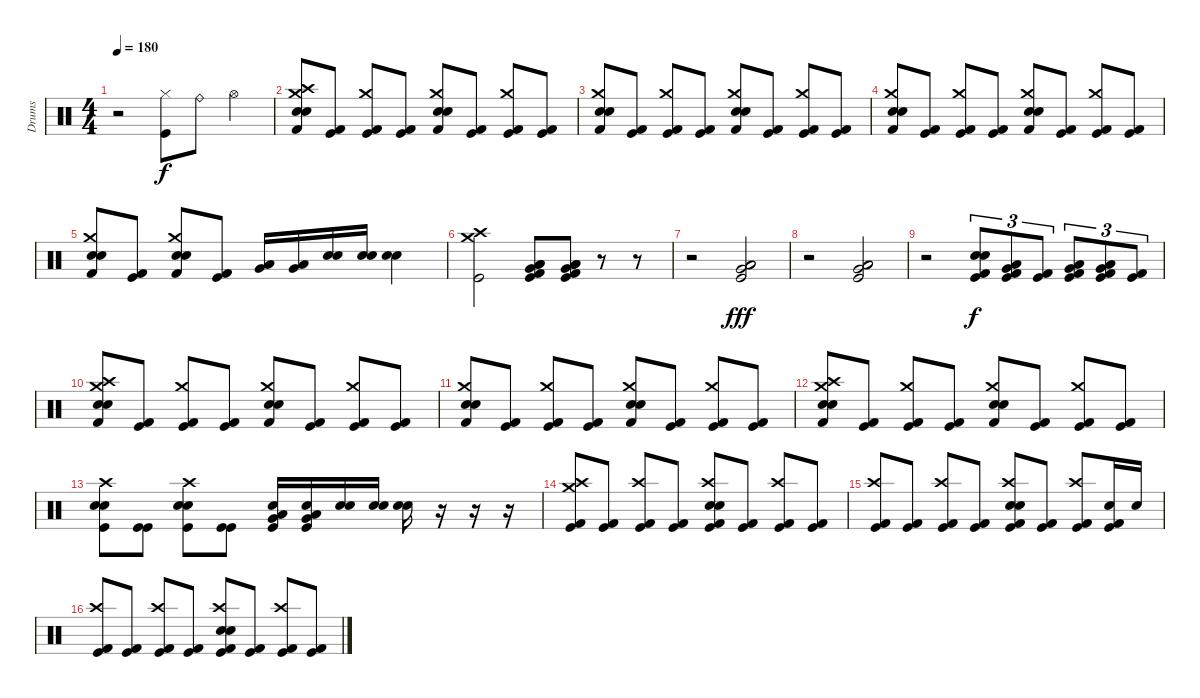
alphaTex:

\track ("Drums" "Drums") {instrument percussion}
\staff {score}
\articulation defaults
\ts (4 4)
\tempo 180
\clef neutral
\ks c
r.2{dy f} ("Hi-Hat (closed)" "Kick (hit)").8 "Ride (bell)".8 "Hi-Hat (open)".4 |
("Electric Snare (hit)" "Crash medium (hit)" "Snare (hit) 2" "Crash high (hit)" "Kick (hit) 2").8 ("Kick (hit)" "Kick (hit) 2").8 ("Kick (hit)" "Crash medium (hit)" "Kick (hit) 2").8 ("Kick (hit)" "Kick (hit) 2").8 ("Electric Snare (hit)" "Snare (hit) 2" "Crash medium (hit)" "Kick (hit) 2").8 ("Kick (hit)" "Kick (hit) 2").8 ("Kick (hit)" "Crash medium (hit)" "Kick (hit) 2").8 ("Kick (hit)" "Kick (hit) 2").8 |
("Electric Snare (hit)" "Snare (hit) 2" "Crash medium (hit)" "Kick (hit) 2").8 ("Kick (hit)" "Kick (hit) 2").8 ("Kick (hit)" "Crash medium (hit)" "Kick (hit) 2").8 ("Kick (hit)" "Kick (hit) 2").8 ("Electric Snare (hit)" "Snare (hit) 2" "Crash medium (hit)" "Kick (hit) 2").8 ("Kick (hit)" "Kick (hit) 2").8 ("Kick (hit)" "Crash medium (hit)" "Kick (hit) 2").8 ("Kick (hit)" "Kick (hit) 2").8 |
("Electric Snare (hit)" "Snare (hit) 2" "Crash medium (hit)" "Kick (hit) 2").8 ("Kick (hit)" "Kick (hit) 2").8 ("Kick (hit)" "Crash medium (hit)" "Kick (hit) 2").8 ("Kick (hit)" "Kick (hit) 2").8 ("Electric Snare (hit)" "Snare (hit) 2" "Crash medium (hit)" "Kick (hit) 2").8 ("Kick (hit)" "Kick (hit) 2").8 ("Kick (hit)" "Crash medium (hit)" "Kick (hit) 2").8 ("Kick (hit)" "Kick (hit) 2").8 |
("Electric Snare (hit)" "Snare (hit) 2" "Crash medium (hit)" "Kick (hit) 2").8 ("Kick (hit)" "Kick (hit) 2").8 ("Electric Snare (hit)" "Snare (hit) 2" "Crash medium (hit)" "Kick (hit) 2").8 ("Kick (hit)" "Kick (hit) 2").8 ("Very Low Tom (hit)" "Low Tom (hit)").16 ("Very Low Tom (hit)" "Low Tom (hit)").16 ("Electric Snare (hit)" "Snare (hit) 2").16 ("Electric Snare (hit)" "Snare (hit) 2").16 ("Electric Snare (hit)" "Snare (hit) 2").4 |
("Crash medium (hit)" "Kick (hit)" "Crash high (hit)").2 ("Kick (hit) 2" "Kick (hit)" "Very Low Tom (hit)" "Low Tom (hit)" "Low Floor Tom (hit)").8 ("Kick (hit) 2" "Kick (hit)" "Very Low Tom (hit)" "Low Tom (hit)" "Low Floor Tom (hit)").8 r.8 r.8 |
r.2 ("Kick (hit)" "Very Low Tom (hit)" "Low Tom (hit)" "Low Floor Tom (hit)").2{dy fff} |
r.2 ("Kick (hit)" "Very Low Tom (hit)" "Low Tom (hit)" "Low Floor Tom (hit)").2 |
r.2 ("Electric Snare (hit)" "Snare (hit) 2" "Kick (hit)" "Kick (hit) 2").8{tu (3 2) dy f} ("Very Low Tom (hit)" "Low Tom (hit)" "Kick (hit)" "Kick (hit) 2").8{tu (3 2)} ("Kick (hit)" "Kick (hit) 2").8{tu (3 2)} ("Very Low Tom (hit)" "Low Tom (hit)" "Kick (hit)" "Kick (hit) 2").8{tu (3 2)} ("Very Low Tom (hit)" "Low Tom (hit)" "Kick (hit)" "Kick (hit) 2").8{tu (3 2)} ("Kick (hit)" "Kick (hit) 2").8{tu (3 2)} |
("Electric Snare (hit)" "Crash medium (hit)" "Snare (hit) 2" "Crash high (hit)" "Kick (hit) 2").8 ("Kick (hit)" "Kick (hit) 2").8 ("Kick (hit)" "Crash medium (hit)" "Kick (hit) 2").8 ("Kick (hit)" "Kick (hit) 2").8 ("Electric Snare (hit)" "Snare (hit) 2" "Crash medium (hit)" "Kick (hit) 2").8 ("Kick (hit)" "Kick (hit) 2").8 ("Kick (hit)" "Crash medium (hit)" "Kick (hit) 2").8 ("Kick (hit)" "Kick (hit) 2").8 |
("Electric Snare (hit)" "Snare (hit) 2" "Crash medium (hit)" "Kick (hit) 2").8 ("Kick (hit)" "Kick (hit) 2").8 ("Kick (hit)" "Crash medium (hit)" "Kick (hit) 2").8 ("Kick (hit)" "Kick (hit) 2").8 ("Electric Snare (hit)" "Snare (hit) 2" "Crash medium (hit)" "Kick (hit) 2").8 ("Kick (hit)" "Kick (hit) 2").8 ("Kick (hit)" "Crash medium (hit)" "Kick (hit) 2").8 ("Kick (hit)" "Kick (hit) 2").8 |
("Crash high (hit)" "Electric Snare (hit)" "Snare (hit) 2" "Crash medium (hit)" "Kick (hit) 2").8 ("Kick (hit)" "Kick (hit) 2").8 ("Kick (hit)" "Crash medium (hit)" "Kick (hit) 2").8 ("Kick (hit)" "Kick (hit) 2").8 ("Electric Snare (hit)" "Snare (hit) 2" "Crash medium (hit)" "Kick (hit) 2").8 ("Kick (hit)" "Kick (hit) 2").8 ("Kick (hit)" "Crash medium (hit)" "Kick (hit) 2").8 ("Kick (hit)" "Kick (hit) 2").8 |
("Electric Snare (hit)" "Snare (hit) 2" "Crash high (hit)" "Kick (hit)").8 ("Kick (hit)" "Kick (hit)").8 ("Electric Snare (hit)" "Snare (hit) 2" "Crash high (hit)" "Kick (hit)").8 ("Kick (hit)" "Kick (hit)").8 ("Electric Snare (hit)" "Very Low Tom (hit)" "Low Tom (hit)" "Kick (hit)").16 ("Electric Snare (hit)" "Very Low Tom (hit)" "Low Tom (hit)" "Kick (hit)").16 ("Electric Snare (hit)" "Snare (hit) 2").16 ("Electric Snare (hit)" "Snare (hit) 2").16 ("Electric Snare (hit)" "Snare (hit) 2").16 r.16 r.16 r.16 |
("Crash high (hit)" "Crash medium (hit)" "Kick (hit)" "Kick (hit) 2").8 ("Kick (hit)" "Kick (hit) 2").8 ("Crash high (hit)" "Kick (hit)" "Kick (hit) 2").8 ("Kick (hit)" "Kick (hit) 2").8 ("Crash high (hit)" "Electric Snare (hit)" "Snare (hit) 2" "Kick (hit)" "Kick (hit) 2").8 ("Kick (hit)" "Kick (hit) 2").8 ("Crash high (hit)" "Kick (hit)" "Kick (hit) 2").8 ("Kick (hit)" "Kick (hit) 2").8 |
("Crash high (hit)" "Kick (hit)" "Kick (hit) 2").8 ("Kick (hit)" "Kick (hit) 2").8 ("Crash high (hit)" "Kick (hit)" "Kick (hit) 2").8 ("Kick (hit)" "Kick (hit) 2").8 ("Crash high (hit)" "Electric Snare (hit)" "Snare (hit) 2" "Kick (hit)" "Kick (hit) 2").8 ("Kick (hit)" "Kick (hit) 2").8 ("Crash high (hit)" "Kick (hit)" "Kick (hit) 2").8 ("Electric Snare (hit)" "Kick (hit)" "Kick (hit) 2").16 "Electric Snare (hit)".16 |
("Crash high (hit)" "Kick (hit)" "Kick (hit) 2").8 ("Kick (hit)" "Kick (hit) 2").8 ("Crash high (hit)" "Kick (hit)" "Kick (hit) 2").8 ("Kick (hit)" "Kick (hit) 2").8 ("Crash high (hit)" "Electric Snare (hit)" "Snare (hit) 2" "Kick (hit)" "Kick (hit) 2").8 ("Kick (hit)" "Kick (hit) 2").8 ("Crash high (hit)" "Kick (hit)" "Kick (hit) 2").8 ("Kick (hit)" "Kick (hit) 2").8
